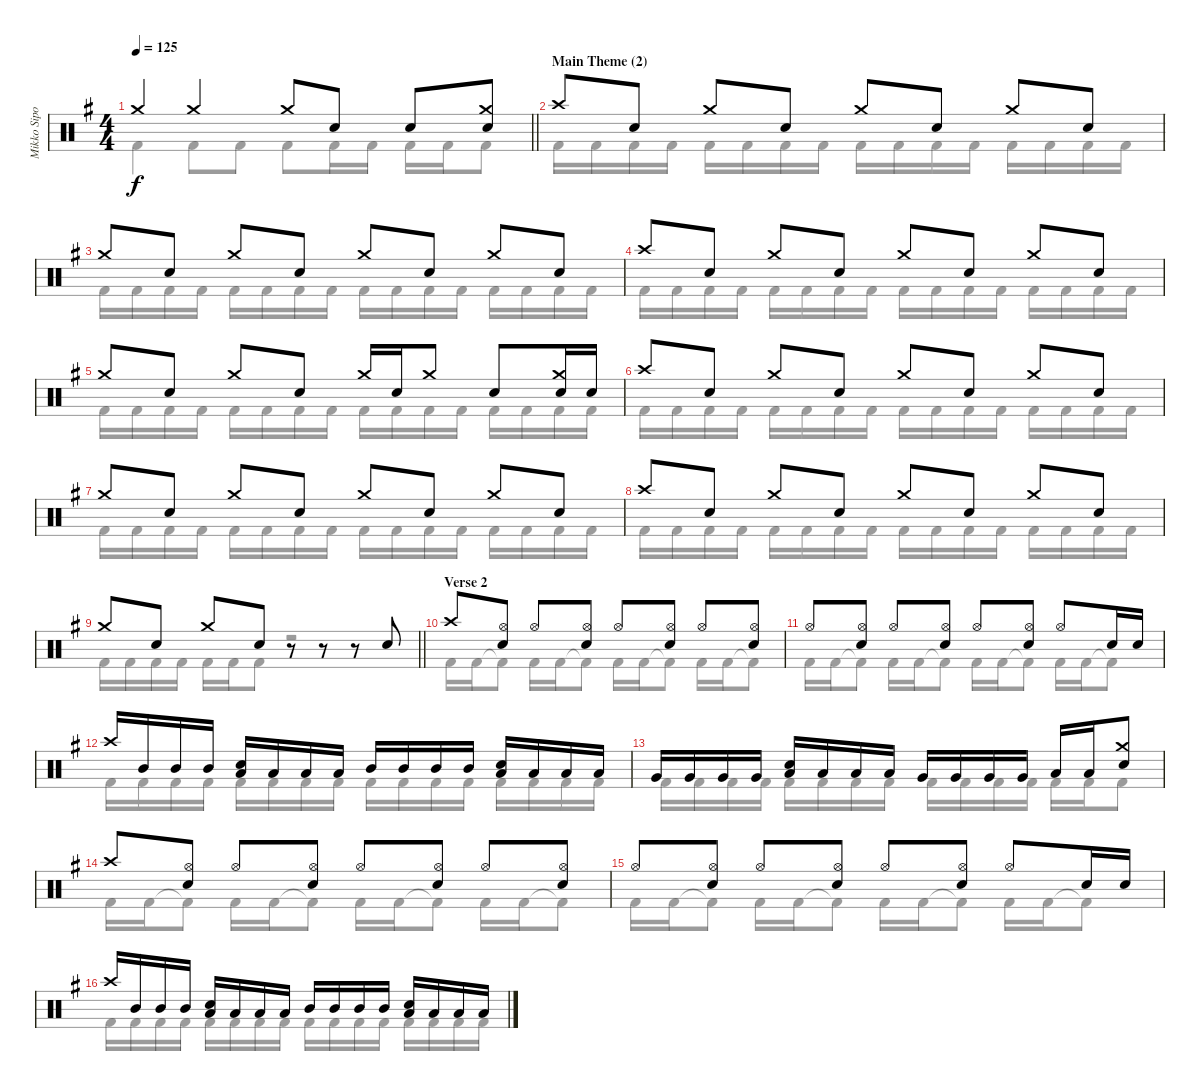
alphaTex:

\track ("Mikko Sipola (drums)" "Mikko Sipo") {instrument percussion}
\staff {score}
\articulation defaults
\voice
\ts (4 4)
\tempo 125
\clef neutral
\barLineRight lightlight
\ks eminor "Crash medium (hit)".4{dy f} "Crash medium (hit)".4 "Crash medium (hit)".8 "Electric Snare (hit)".8 "Electric Snare (hit)".8
("Crash medium (hit)" "Electric Snare (hit)").8 |
\section ("" "Main Theme (2)")
\ks g "Crash high (hit)".8 "Electric Snare (hit)".8 "Crash medium (hit)".8 "Electric Snare (hit)".8 "Crash medium (hit)".8 "Electric Snare (hit)".8 "Crash medium (hit)".8 "Electric Snare (hit)".8
|
"Crash medium (hit)".8 "Electric Snare (hit)".8 "Crash medium (hit)".8 "Electric Snare (hit)".8 "Crash medium (hit)".8 "Electric Snare (hit)".8 "Crash medium (hit)".8 "Electric Snare (hit)".8 |
"Crash high (hit)".8 "Electric Snare (hit)".8 "Crash medium (hit)".8 "Electric Snare (hit)".8 "Crash medium (hit)".8 "Electric Snare (hit)".8 "Crash medium (hit)".8 "Electric Snare (hit)".8 |
"Crash medium (hit)".8 "Electric Snare (hit)".8 "Crash medium (hit)".8 "Electric Snare (hit)".8 "Crash medium (hit)".16 "Electric Snare (hit)".16 "Crash medium (hit)".8 "Electric Snare (hit)".8 ("Crash medium (hit)" "Electric Snare (hit)").16 "Electric Snare (hit)".16 |
"Crash high (hit)".8 "Electric Snare (hit)".8 "Crash medium (hit)".8 "Electric Snare (hit)".8 "Crash medium (hit)".8 "Electric Snare (hit)".8 "Crash medium (hit)".8 "Electric Snare (hit)".8 |
"Crash medium (hit)".8 "Electric Snare (hit)".8 "Crash medium (hit)".8 "Electric Snare (hit)".8 "Crash medium (hit)".8 "Electric Snare (hit)".8 "Crash medium (hit)".8 "Electric Snare (hit)".8 |
"Crash high (hit)".8 "Electric Snare (hit)".8 "Crash medium (hit)".8 "Electric Snare (hit)".8 "Crash medium (hit)".8 "Electric Snare (hit)".8 "Crash medium (hit)".8 "Electric Snare (hit)".8 |
\barLineRight lightlight "Crash medium (hit)".8 "Electric Snare (hit)".8 "Crash medium (hit)".8 "Electric Snare (hit)".8
r.8 r.8 r.8 "Electric Snare (hit)".8 |
\section ("" "Verse 2")
"Crash high (hit)".8 ("Hi-Hat (open)" "Electric Snare (hit)").8 "Hi-Hat (open)".8 ("Hi-Hat (open)" "Electric Snare (hit)").8 "Hi-Hat (open)".8 ("Hi-Hat (open)" "Electric Snare (hit)").8 "Hi-Hat (open)".8 ("Hi-Hat (open)" "Electric Snare (hit)").8 |
"Hi-Hat (open)".8 ("Hi-Hat (open)" "Electric Snare (hit)").8 "Hi-Hat (open)".8 ("Hi-Hat (open)" "Electric Snare (hit)").8 "Hi-Hat (open)".8 ("Hi-Hat (open)" "Electric Snare (hit)").8 "Hi-Hat (open)".8 "Electric Snare (hit)".16 "Electric Snare (hit)".16 |
"Crash high (hit)".16 "Mid Tom (hit)".16 "Mid Tom (hit)".16 "Mid Tom (hit)".16 ("Low Tom (hit)" "Electric Snare (hit)").16 "Low Tom (hit)".16 "Low Tom (hit)".16 "Low Tom (hit)".16 "Mid Tom (hit)".16 "Mid Tom (hit)".16 "Mid Tom (hit)".16 "Mid Tom (hit)".16 ("Low Tom (hit)" "Electric Snare (hit)").16 "Low Tom (hit)".16 "Low Tom (hit)".16 "Low Tom (hit)".16 |
"Very Low Tom (hit)".16 "Very Low Tom (hit)".16 "Very Low Tom (hit)".16 "Very Low Tom (hit)".16 ("Low Tom (hit)" "Electric Snare (hit)").16 "Low Tom (hit)".16 "Low Tom (hit)".16 "Low Tom (hit)".16 "Very Low Tom (hit)".16 "Very Low Tom (hit)".16 "Very Low Tom (hit)".16 "Very Low Tom (hit)".16 "Low Tom (hit)".16 "Low Tom (hit)".16 ("Crash medium (hit)" "Electric Snare (hit)").8 |
"Crash high (hit)".8 ("Hi-Hat (open)" "Electric Snare (hit)").8 "Hi-Hat (open)".8 ("Hi-Hat (open)" "Electric Snare (hit)").8 "Hi-Hat (open)".8 ("Hi-Hat (open)" "Electric Snare (hit)").8 "Hi-Hat (open)".8 ("Hi-Hat (open)" "Electric Snare (hit)").8 |
"Hi-Hat (open)".8 ("Hi-Hat (open)" "Electric Snare (hit)").8 "Hi-Hat (open)".8 ("Hi-Hat (open)" "Electric Snare (hit)").8 "Hi-Hat (open)".8 ("Hi-Hat (open)" "Electric Snare (hit)").8 "Hi-Hat (open)".8 "Electric Snare (hit)".16 "Electric Snare (hit)".16 |
"Crash high (hit)".16 "Mid Tom (hit)".16 "Mid Tom (hit)".16 "Mid Tom (hit)".16 ("Low Tom (hit)" "Electric Snare (hit)").16 "Low Tom (hit)".16 "Low Tom (hit)".16 "Low Tom (hit)".16 "Mid Tom (hit)".16 "Mid Tom (hit)".16 "Mid Tom (hit)".16 "Mid Tom (hit)".16 ("Low Tom (hit)" "Electric Snare (hit)").16 "Low Tom (hit)".16 "Low Tom (hit)".16 "Low Tom (hit)".16
\voice
\clef neutral
\ottava regular
\simile none
\barLineRight lightlight
\ks eminor "Kick (hit) 2".4{dy f} "Kick (hit) 2".8 "Kick (hit) 2".8 "Kick (hit) 2".8 "Kick (hit) 2".16 "Kick (hit) 2".16 "Kick (hit) 2".16 "Kick (hit) 2".16 "Kick (hit) 2".8
|
\ks g "Kick (hit) 2".16 "Kick (hit) 2".16 "Kick (hit) 2".16 "Kick (hit) 2".16 "Kick (hit) 2".16 "Kick (hit) 2".16 "Kick (hit) 2".16 "Kick (hit) 2".16 "Kick (hit) 2".16 "Kick (hit) 2".16 "Kick (hit) 2".16 "Kick (hit) 2".16 "Kick (hit) 2".16 "Kick (hit) 2".16 "Kick (hit) 2".16 "Kick (hit) 2".16
|
"Kick (hit) 2".16 "Kick (hit) 2".16 "Kick (hit) 2".16 "Kick (hit) 2".16 "Kick (hit) 2".16 "Kick (hit) 2".16 "Kick (hit) 2".16 "Kick (hit) 2".16 "Kick (hit) 2".16 "Kick (hit) 2".16 "Kick (hit) 2".16 "Kick (hit) 2".16 "Kick (hit) 2".16 "Kick (hit) 2".16 "Kick (hit) 2".16 "Kick (hit) 2".16 |
"Kick (hit) 2".16 "Kick (hit) 2".16 "Kick (hit) 2".16 "Kick (hit) 2".16 "Kick (hit) 2".16 "Kick (hit) 2".16 "Kick (hit) 2".16 "Kick (hit) 2".16 "Kick (hit) 2".16 "Kick (hit) 2".16 "Kick (hit) 2".16 "Kick (hit) 2".16 "Kick (hit) 2".16 "Kick (hit) 2".16 "Kick (hit) 2".16 "Kick (hit) 2".16 |
"Kick (hit) 2".16 "Kick (hit) 2".16 "Kick (hit) 2".16 "Kick (hit) 2".16 "Kick (hit) 2".16 "Kick (hit) 2".16 "Kick (hit) 2".16 "Kick (hit) 2".16 "Kick (hit) 2".16 "Kick (hit) 2".16 "Kick (hit) 2".16 "Kick (hit) 2".16 "Kick (hit) 2".16 "Kick (hit) 2".16 "Kick (hit) 2".16 "Kick (hit) 2".16 |
"Kick (hit) 2".16 "Kick (hit) 2".16 "Kick (hit) 2".16 "Kick (hit) 2".16 "Kick (hit) 2".16 "Kick (hit) 2".16 "Kick (hit) 2".16 "Kick (hit) 2".16 "Kick (hit) 2".16 "Kick (hit) 2".16 "Kick (hit) 2".16 "Kick (hit) 2".16 "Kick (hit) 2".16 "Kick (hit) 2".16 "Kick (hit) 2".16 "Kick (hit) 2".16 |
"Kick (hit) 2".16 "Kick (hit) 2".16 "Kick (hit) 2".16 "Kick (hit) 2".16 "Kick (hit) 2".16 "Kick (hit) 2".16 "Kick (hit) 2".16 "Kick (hit) 2".16 "Kick (hit) 2".16 "Kick (hit) 2".16 "Kick (hit) 2".16 "Kick (hit) 2".16 "Kick (hit) 2".16 "Kick (hit) 2".16 "Kick (hit) 2".16 "Kick (hit) 2".16 |
"Kick (hit) 2".16 "Kick (hit) 2".16 "Kick (hit) 2".16 "Kick (hit) 2".16 "Kick (hit) 2".16 "Kick (hit) 2".16 "Kick (hit) 2".16 "Kick (hit) 2".16 "Kick (hit) 2".16 "Kick (hit) 2".16 "Kick (hit) 2".16 "Kick (hit) 2".16 "Kick (hit) 2".16 "Kick (hit) 2".16 "Kick (hit) 2".16 "Kick (hit) 2".16 |
\barLineRight lightlight "Kick (hit) 2".16 "Kick (hit) 2".16 "Kick (hit) 2".16 "Kick (hit) 2".16 "Kick (hit) 2".16 "Kick (hit) 2".16 "Kick (hit) 2".8
r.2 |
"Kick (hit) 2".16 "Kick (hit) 2".16 "Kick (hit) 2"{t}.8 "Kick (hit) 2".16 "Kick (hit) 2".16 "Kick (hit) 2"{t}.8 "Kick (hit) 2".16 "Kick (hit) 2".16 "Kick (hit) 2"{t}.8 "Kick (hit) 2".16 "Kick (hit) 2".16 "Kick (hit) 2"{t}.8 |
"Kick (hit) 2".16 "Kick (hit) 2".16 "Kick (hit) 2"{t}.8 "Kick (hit) 2".16 "Kick (hit) 2".16 "Kick (hit) 2"{t}.8 "Kick (hit) 2".16 "Kick (hit) 2".16 "Kick (hit) 2"{t}.8 "Kick (hit) 2".16 "Kick (hit) 2".16 "Kick (hit) 2"{t}.8 |
"Kick (hit) 2".16 "Kick (hit) 2".16 "Kick (hit) 2".16 "Kick (hit) 2".16 "Kick (hit) 2".16 "Kick (hit) 2".16 "Kick (hit) 2".16 "Kick (hit) 2".16 "Kick (hit) 2".16 "Kick (hit) 2".16 "Kick (hit) 2".16 "Kick (hit) 2".16 "Kick (hit) 2".16 "Kick (hit) 2".16 "Kick (hit) 2".16 "Kick (hit) 2".16 |
"Kick (hit) 2".16 "Kick (hit) 2".16 "Kick (hit) 2".16 "Kick (hit) 2".16 "Kick (hit) 2".16 "Kick (hit) 2".16 "Kick (hit) 2".16 "Kick (hit) 2".16 "Kick (hit) 2".16 "Kick (hit) 2".16 "Kick (hit) 2".16 "Kick (hit) 2".16 "Kick (hit) 2".16 "Kick (hit) 2".16 "Kick (hit) 2".8 |
"Kick (hit) 2".16 "Kick (hit) 2".16 "Kick (hit) 2"{t}.8 "Kick (hit) 2".16 "Kick (hit) 2".16 "Kick (hit) 2"{t}.8 "Kick (hit) 2".16 "Kick (hit) 2".16 "Kick (hit) 2"{t}.8 "Kick (hit) 2".16 "Kick (hit) 2".16 "Kick (hit) 2"{t}.8 |
"Kick (hit) 2".16 "Kick (hit) 2".16 "Kick (hit) 2"{t}.8 "Kick (hit) 2".16 "Kick (hit) 2".16 "Kick (hit) 2"{t}.8 "Kick (hit) 2".16 "Kick (hit) 2".16 "Kick (hit) 2"{t}.8 "Kick (hit) 2".16 "Kick (hit) 2".16 "Kick (hit) 2"{t}.8 |
"Kick (hit) 2".16 "Kick (hit) 2".16 "Kick (hit) 2".16 "Kick (hit) 2".16 "Kick (hit) 2".16 "Kick (hit) 2".16 "Kick (hit) 2".16 "Kick (hit) 2".16 "Kick (hit) 2".16 "Kick (hit) 2".16 "Kick (hit) 2".16 "Kick (hit) 2".16 "Kick (hit) 2".16 "Kick (hit) 2".16 "Kick (hit) 2".16 "Kick (hit) 2".16
